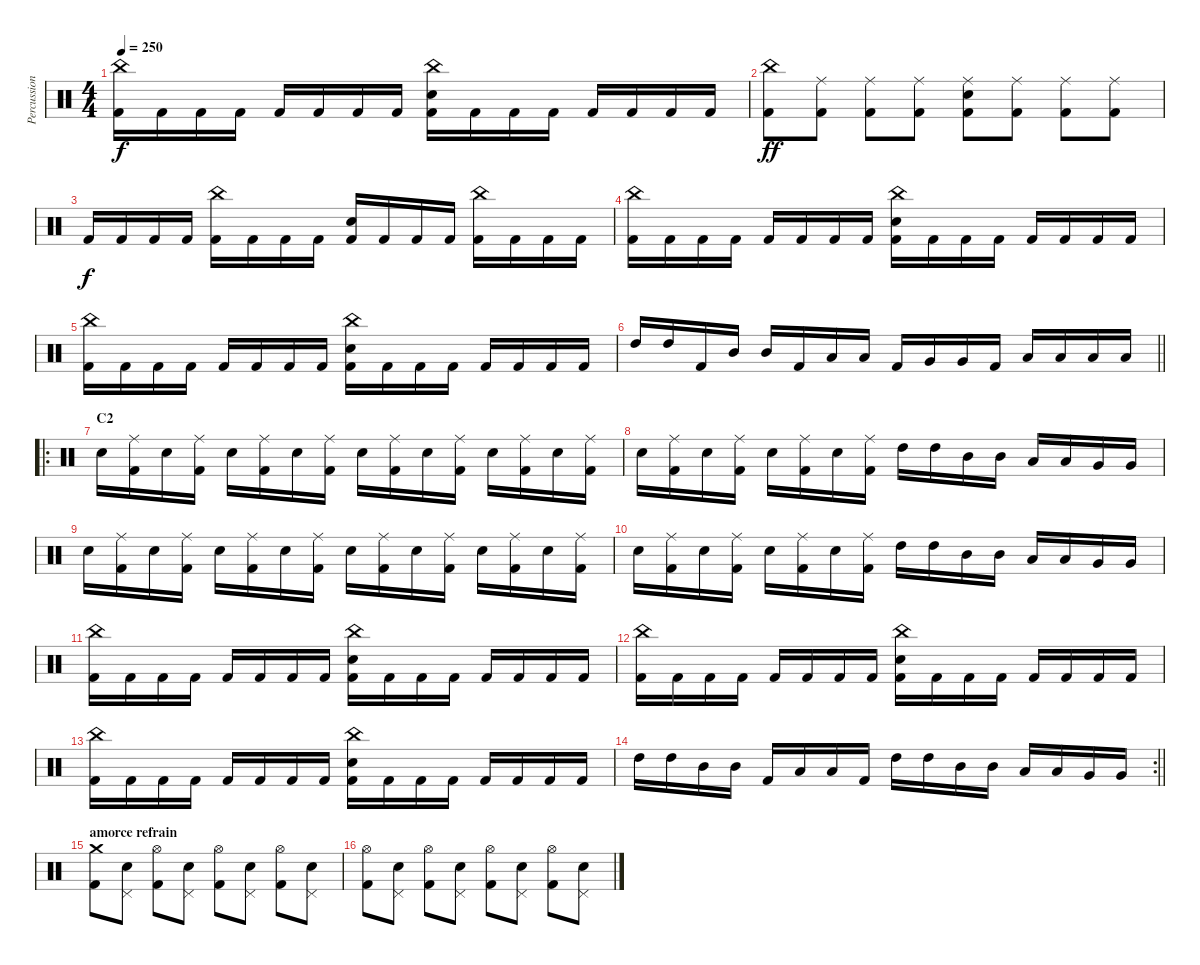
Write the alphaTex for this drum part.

\track ("Percussions" "Percussion") {instrument percussion}
\staff {score}
\articulation defaults
\ts (4 4)
\tempo 250
\clef neutral
\ks c
("China (hit)" "Kick (hit) 2").16{dy f} "Kick (hit) 2".16 "Kick (hit) 2".16 "Kick (hit) 2".16 "Kick (hit) 2".16 "Kick (hit) 2".16 "Kick (hit) 2".16 "Kick (hit) 2".16 ("China (hit)" "Electric Snare (hit)" "Kick (hit) 2").16 "Kick (hit) 2".16 "Kick (hit) 2".16 "Kick (hit) 2".16 "Kick (hit) 2".16 "Kick (hit) 2".16 "Kick (hit) 2".16 "Kick (hit) 2".16 |
("China (hit)" "Kick (hit) 2").8{dy ff} ("Ride (middle)" "Kick (hit) 2").8 ("Ride (middle)" "Kick (hit) 2").8 ("Ride (middle)" "Kick (hit) 2").8 ("Ride (middle)" "Electric Snare (hit)" "Kick (hit) 2").8 ("Ride (middle)" "Kick (hit) 2").8 ("Ride (middle)" "Kick (hit) 2").8 ("Ride (middle)" "Kick (hit) 2").8 |
"Kick (hit) 2".16{dy f} "Kick (hit) 2".16 "Kick (hit) 2".16 "Kick (hit) 2".16 ("China (hit)" "Kick (hit) 2").16 "Kick (hit) 2".16 "Kick (hit) 2".16 "Kick (hit) 2".16 ("Electric Snare (hit)" "Kick (hit) 2").16 "Kick (hit) 2".16 "Kick (hit) 2".16 "Kick (hit) 2".16 ("China (hit)" "Kick (hit) 2").16 "Kick (hit) 2".16 "Kick (hit) 2".16 "Kick (hit) 2".16 |
("China (hit)" "Kick (hit) 2").16 "Kick (hit) 2".16 "Kick (hit) 2".16 "Kick (hit) 2".16 "Kick (hit) 2".16 "Kick (hit) 2".16 "Kick (hit) 2".16 "Kick (hit) 2".16 ("China (hit)" "Electric Snare (hit)" "Kick (hit) 2").16 "Kick (hit) 2".16 "Kick (hit) 2".16 "Kick (hit) 2".16 "Kick (hit) 2".16 "Kick (hit) 2".16 "Kick (hit) 2".16 "Kick (hit) 2".16 |
("China (hit)" "Kick (hit) 2").16 "Kick (hit) 2".16 "Kick (hit) 2".16 "Kick (hit) 2".16 "Kick (hit) 2".16 "Kick (hit) 2".16 "Kick (hit) 2".16 "Kick (hit) 2".16 ("China (hit)" "Electric Snare (hit)" "Kick (hit) 2").16 "Kick (hit) 2".16 "Kick (hit) 2".16 "Kick (hit) 2".16 "Kick (hit) 2".16 "Kick (hit) 2".16 "Kick (hit) 2".16 "Kick (hit) 2".16 |
\barLineRight lightlight "High Tom (hit)".16 "High Tom (hit)".16 "Kick (hit) 2".16 "Mid Tom (hit)".16 "Mid Tom (hit)".16 "Kick (hit) 2".16 "Low Tom (hit)".16 "Low Tom (hit)".16 "Kick (hit) 2".16 "Very Low Tom (hit)".16 "Very Low Tom (hit)".16 "Kick (hit) 2".16 "Low Floor Tom (hit)".16 "Low Floor Tom (hit)".16 "Low Floor Tom (hit)".16 "Low Floor Tom (hit)".16
|
\ro
\section ("" "C2")
"Electric Snare (hit)".16 ("Ride (middle)" "Kick (hit) 2").16 "Electric Snare (hit)".16 ("Ride (middle)" "Kick (hit) 2").16 "Electric Snare (hit)".16 ("Ride (middle)" "Kick (hit) 2").16 "Electric Snare (hit)".16 ("Ride (middle)" "Kick (hit) 2").16 "Electric Snare (hit)".16 ("Ride (middle)" "Kick (hit) 2").16 "Electric Snare (hit)".16 ("Ride (middle)" "Kick (hit) 2").16 "Electric Snare (hit)".16 ("Ride (middle)" "Kick (hit) 2").16 "Electric Snare (hit)".16 ("Ride (middle)" "Kick (hit) 2").16 |
"Electric Snare (hit)".16 ("Ride (middle)" "Kick (hit) 2").16 "Electric Snare (hit)".16 ("Ride (middle)" "Kick (hit) 2").16 "Electric Snare (hit)".16 ("Ride (middle)" "Kick (hit) 2").16 "Electric Snare (hit)".16 ("Ride (middle)" "Kick (hit) 2").16 "High Tom (hit)".16 "High Tom (hit)".16 "Mid Tom (hit)".16 "Mid Tom (hit)".16 "Low Tom (hit)".16 "Low Tom (hit)".16 "Very Low Tom (hit)".16 "Very Low Tom (hit)".16 |
"Electric Snare (hit)".16 ("Ride (middle)" "Kick (hit) 2").16 "Electric Snare (hit)".16 ("Ride (middle)" "Kick (hit) 2").16 "Electric Snare (hit)".16 ("Ride (middle)" "Kick (hit) 2").16 "Electric Snare (hit)".16 ("Ride (middle)" "Kick (hit) 2").16 "Electric Snare (hit)".16 ("Ride (middle)" "Kick (hit) 2").16 "Electric Snare (hit)".16 ("Ride (middle)" "Kick (hit) 2").16 "Electric Snare (hit)".16 ("Ride (middle)" "Kick (hit) 2").16 "Electric Snare (hit)".16 ("Ride (middle)" "Kick (hit) 2").16 |
"Electric Snare (hit)".16 ("Ride (middle)" "Kick (hit) 2").16 "Electric Snare (hit)".16 ("Ride (middle)" "Kick (hit) 2").16 "Electric Snare (hit)".16 ("Ride (middle)" "Kick (hit) 2").16 "Electric Snare (hit)".16 ("Ride (middle)" "Kick (hit) 2").16 "High Tom (hit)".16 "High Tom (hit)".16 "Mid Tom (hit)".16 "Mid Tom (hit)".16 "Low Tom (hit)".16 "Low Tom (hit)".16 "Very Low Tom (hit)".16 "Very Low Tom (hit)".16 |
("China (hit)" "Kick (hit) 2").16 "Kick (hit) 2".16 "Kick (hit) 2".16 "Kick (hit) 2".16 "Kick (hit) 2".16 "Kick (hit) 2".16 "Kick (hit) 2".16 "Kick (hit) 2".16 ("China (hit)" "Electric Snare (hit)" "Kick (hit) 2").16 "Kick (hit) 2".16 "Kick (hit) 2".16 "Kick (hit) 2".16 "Kick (hit) 2".16 "Kick (hit) 2".16 "Kick (hit) 2".16 "Kick (hit) 2".16 |
("China (hit)" "Kick (hit) 2").16 "Kick (hit) 2".16 "Kick (hit) 2".16 "Kick (hit) 2".16 "Kick (hit) 2".16 "Kick (hit) 2".16 "Kick (hit) 2".16 "Kick (hit) 2".16 ("China (hit)" "Electric Snare (hit)" "Kick (hit) 2").16 "Kick (hit) 2".16 "Kick (hit) 2".16 "Kick (hit) 2".16 "Kick (hit) 2".16 "Kick (hit) 2".16 "Kick (hit) 2".16 "Kick (hit) 2".16 |
("China (hit)" "Kick (hit) 2").16 "Kick (hit) 2".16 "Kick (hit) 2".16 "Kick (hit) 2".16 "Kick (hit) 2".16 "Kick (hit) 2".16 "Kick (hit) 2".16 "Kick (hit) 2".16 ("China (hit)" "Electric Snare (hit)" "Kick (hit) 2").16 "Kick (hit) 2".16 "Kick (hit) 2".16 "Kick (hit) 2".16 "Kick (hit) 2".16 "Kick (hit) 2".16 "Kick (hit) 2".16 "Kick (hit) 2".16 |
\rc 2
\barLineRight lightlight "High Tom (hit)".16 "High Tom (hit)".16 "Mid Tom (hit)".16 "Mid Tom (hit)".16 "Kick (hit) 2".16 "Low Tom (hit)".16 "Low Tom (hit)".16 "Kick (hit) 2".16 "High Tom (hit)".16 "High Tom (hit)".16 "Mid Tom (hit)".16 "Mid Tom (hit)".16 "Low Tom (hit)".16 "Low Tom (hit)".16 "Very Low Tom (hit)".16 "Very Low Tom (hit)".16
|
\section ("" "amorce refrain")
("Crash medium (hit)" "Kick (hit) 2").8 ("Pedal Hi-Hat (hit)" "Electric Snare (hit)").8 ("Hi-Hat (open)" "Kick (hit) 2").8 ("Pedal Hi-Hat (hit)" "Electric Snare (hit)").8 ("Hi-Hat (open)" "Kick (hit) 2").8 ("Pedal Hi-Hat (hit)" "Electric Snare (hit)").8 ("Hi-Hat (open)" "Kick (hit) 2").8 ("Pedal Hi-Hat (hit)" "Electric Snare (hit)").8 |
("Hi-Hat (open)" "Kick (hit) 2").8 ("Pedal Hi-Hat (hit)" "Electric Snare (hit)").8 ("Hi-Hat (open)" "Kick (hit) 2").8 ("Pedal Hi-Hat (hit)" "Electric Snare (hit)").8 ("Hi-Hat (open)" "Kick (hit) 2").8 ("Pedal Hi-Hat (hit)" "Electric Snare (hit)").8 ("Hi-Hat (open)" "Kick (hit) 2").8 ("Pedal Hi-Hat (hit)" "Electric Snare (hit)").8
